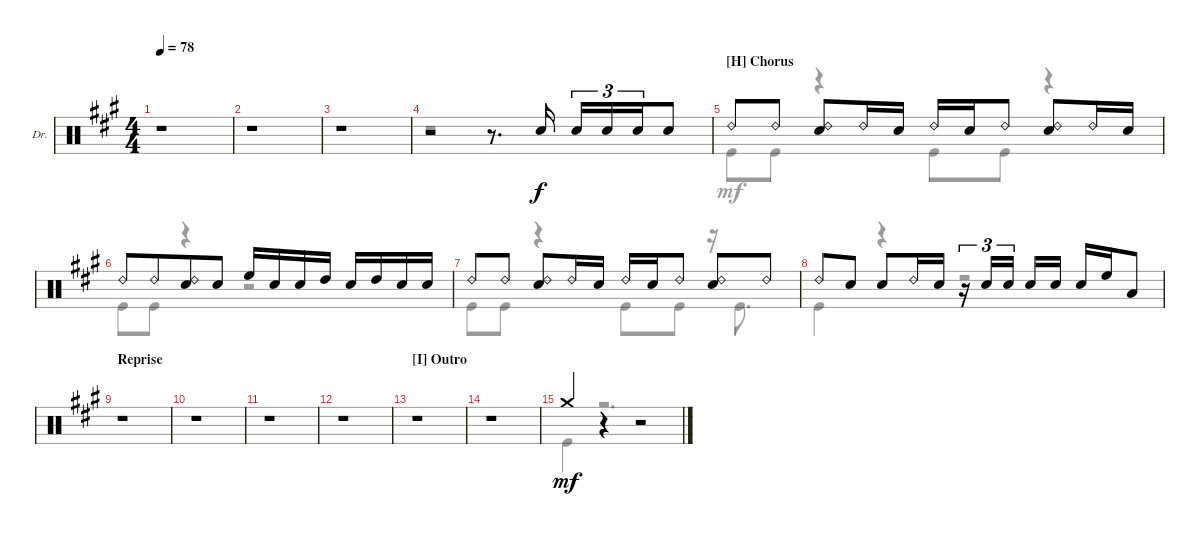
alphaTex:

\defaultSystemsLayout 4
\bracketExtendMode groupsimilarinstruments
\firstSystemTrackNameOrientation horizontal
\otherSystemsTrackNameOrientation horizontal
\track ("Drums" "Dr.") {instrument percussion}
\staff {score}
\articulation defaults
\voice
\ts (4 4)
\tempo 78
\clef neutral
\ks a
r.1{dy mf} |
r.1 |
r.1 |
r.2 r.8{d} "Snare (hit) 2".16{dy f} "Snare (hit) 2".16{tu (3 2)} "Snare (hit) 2".16{tu (3 2)} "Snare (hit) 2".16{tu (3 2) beam merge} "Snare (hit) 2".8 |
\section ("H" "Chorus")
"Ride (bell) 2".8 "Ride (bell) 2".8 ("Ride (bell) 2" "Snare (hit) 2").8 "Ride (bell) 2".16 "Snare (hit) 2".16 "Ride (bell) 2".16 "Snare (hit) 2".16 "Ride (bell) 2".8 ("Ride (bell) 2" "Snare (hit) 2").8 "Ride (bell) 2".16 "Snare (hit) 2".16 |
"Ride (bell) 2".8 "Ride (bell) 2".8{beam merge} ("Ride (bell) 2" "Snare (hit) 2").8 "Snare (hit) 2".8 "High Floor Tom (hit)".16 "Snare (hit) 2".16 "Snare (hit) 2".16 "High Tom (hit)".16 "Snare (hit) 2".16 "High Tom (hit)".16 "Snare (hit) 2".16 "Snare (hit) 2".16 |
"Ride (bell) 2".8 "Ride (bell) 2".8 ("Ride (bell) 2" "Snare (hit) 2").8 "Ride (bell) 2".16 "Snare (hit) 2".16 "Ride (bell) 2".16 "Snare (hit) 2".16 "Ride (bell) 2".8 ("Ride (bell) 2" "Snare (hit) 2").8 "Ride (bell) 2".8 |
"Ride (bell) 2".8 "Snare (hit) 2".8 "Snare (hit) 2".8 "Ride (bell) 2".16 "Snare (hit) 2".16 r.16{tu (3 2)} "Snare (hit) 2".16{tu (3 2)} "Snare (hit) 2".16{tu (3 2) beam splitsecondary} "Snare (hit) 2".16 "Snare (hit) 2".16 "Snare (hit) 2".16 "High Floor Tom (hit)".16 "Low Tom (hit)".8 |
\section ("" "Reprise")
r.1 |
r.1 |
r.1 |
r.1 |
\section ("I" "Outro")
r.1 |
r.1 |
"Crash medium (hit)".4{dy mf} r.4 r.2
\voice
\clef neutral
\ottava regular
\simile none
\ks a
|
|
|
r.1 |
"Kick (hit)".8 "Kick (hit)".8 r.4 "Kick (hit)".8 "Kick (hit)".8 r.4 |
"Kick (hit)".8 "Kick (hit)".8 r.4 r.2 |
"Kick (hit)".8 "Kick (hit)".8 r.4 "Kick (hit)".8 "Kick (hit)".8 r.16 "Kick (hit)".8{d} |
"Kick (hit)".4 r.4 r.2 |
|
|
|
|
|
|
"Kick (hit)".4 r.2{d}
